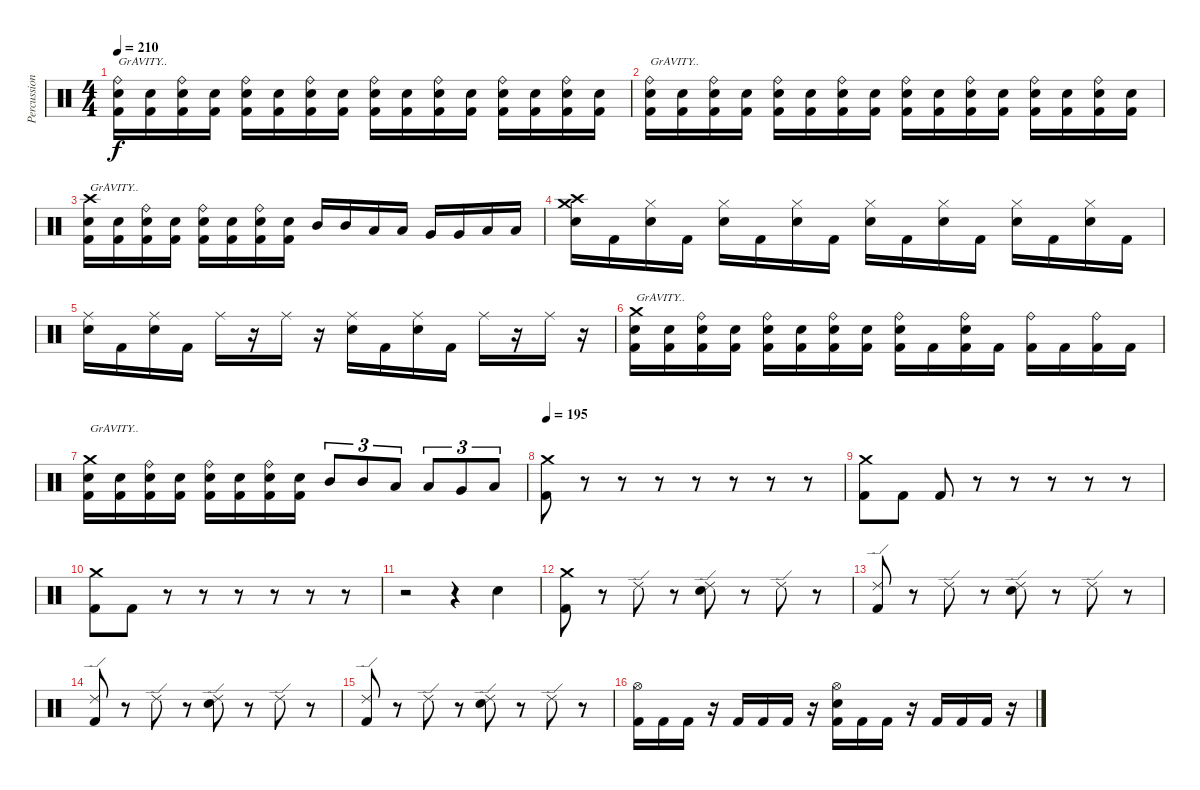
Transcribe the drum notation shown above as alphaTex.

\track ("Percussion" "Percussion") {instrument percussion}
\staff {score}
\articulation defaults
\ts (4 4)
\tempo 210
\clef neutral
\ks c
("Ride (bell)" "Snare (hit) 2" "Kick (hit) 2").16{txt "GrAVITY.." dy f} ("Snare (hit) 2" "Kick (hit) 2").16 ("Ride (bell)" "Snare (hit) 2" "Kick (hit) 2").16 ("Snare (hit) 2" "Kick (hit) 2").16 ("Ride (bell)" "Snare (hit) 2" "Kick (hit) 2").16 ("Snare (hit) 2" "Kick (hit) 2").16 ("Ride (bell)" "Snare (hit) 2" "Kick (hit) 2").16 ("Snare (hit) 2" "Kick (hit) 2").16 ("Ride (bell)" "Snare (hit) 2" "Kick (hit) 2").16 ("Snare (hit) 2" "Kick (hit) 2").16 ("Ride (bell)" "Snare (hit) 2" "Kick (hit) 2").16 ("Snare (hit) 2" "Kick (hit) 2").16 ("Ride (bell)" "Snare (hit) 2" "Kick (hit) 2").16 ("Snare (hit) 2" "Kick (hit) 2").16 ("Ride (bell)" "Snare (hit) 2" "Kick (hit) 2").16 ("Snare (hit) 2" "Kick (hit) 2").16 |
("Ride (bell)" "Snare (hit) 2" "Kick (hit) 2").16{txt "GrAVITY.."} ("Snare (hit) 2" "Kick (hit) 2").16 ("Ride (bell)" "Snare (hit) 2" "Kick (hit) 2").16 ("Snare (hit) 2" "Kick (hit) 2").16 ("Ride (bell)" "Snare (hit) 2" "Kick (hit) 2").16 ("Snare (hit) 2" "Kick (hit) 2").16 ("Ride (bell)" "Snare (hit) 2" "Kick (hit) 2").16 ("Snare (hit) 2" "Kick (hit) 2").16 ("Ride (bell)" "Snare (hit) 2" "Kick (hit) 2").16 ("Snare (hit) 2" "Kick (hit) 2").16 ("Ride (bell)" "Snare (hit) 2" "Kick (hit) 2").16 ("Snare (hit) 2" "Kick (hit) 2").16 ("Ride (bell)" "Snare (hit) 2" "Kick (hit) 2").16 ("Snare (hit) 2" "Kick (hit) 2").16 ("Ride (bell)" "Snare (hit) 2" "Kick (hit) 2").16 ("Snare (hit) 2" "Kick (hit) 2").16 |
("Crash high (hit)" "Snare (hit) 2" "Kick (hit) 2").16{txt "GrAVITY.."} ("Snare (hit) 2" "Kick (hit) 2").16 ("Ride (bell)" "Snare (hit) 2" "Kick (hit) 2").16 ("Snare (hit) 2" "Kick (hit) 2").16 ("Ride (bell)" "Snare (hit) 2" "Kick (hit) 2").16 ("Snare (hit) 2" "Kick (hit) 2").16 ("Ride (bell)" "Snare (hit) 2" "Kick (hit) 2").16 ("Snare (hit) 2" "Kick (hit) 2").16 "Mid Tom (hit)".16 "Mid Tom (hit)".16 "Low Tom (hit)".16 "Low Tom (hit)".16 "Very Low Tom (hit)".16 "Very Low Tom (hit)".16 "Low Floor Tom (hit)".16 "Low Floor Tom (hit)".16 |
("Crash high (hit)" "Crash medium (hit)" "Snare (hit) 2").16 "Kick (hit) 2".16 ("Hi-Hat (closed)" "Snare (hit) 2").16 "Kick (hit) 2".16 ("Hi-Hat (closed)" "Snare (hit) 2").16 "Kick (hit) 2".16 ("Hi-Hat (closed)" "Snare (hit) 2").16 "Kick (hit) 2".16 ("Hi-Hat (closed)" "Snare (hit) 2").16 "Kick (hit) 2".16 ("Hi-Hat (closed)" "Snare (hit) 2").16 "Kick (hit) 2".16 ("Hi-Hat (closed)" "Snare (hit) 2").16 "Kick (hit) 2".16 ("Hi-Hat (closed)" "Snare (hit) 2").16 "Kick (hit) 2".16 |
("Ride (middle)" "Snare (hit) 2").16 "Kick (hit) 2".16 ("Ride (middle)" "Snare (hit) 2").16 "Kick (hit) 2".16 "Ride (middle)".16 r.16 "Ride (middle)".16 r.16 ("Ride (middle)" "Snare (hit) 2").16 "Kick (hit) 2".16 ("Ride (middle)" "Snare (hit) 2").16 "Kick (hit) 2".16 "Ride (middle)".16 r.16 "Ride (middle)".16 r.16 |
("Crash medium (hit)" "Snare (hit) 2" "Kick (hit) 2").16{txt "GrAVITY.."} ("Snare (hit) 2" "Kick (hit) 2").16 ("Ride (bell)" "Snare (hit) 2" "Kick (hit) 2").16 ("Snare (hit) 2" "Kick (hit) 2").16 ("Ride (bell)" "Snare (hit) 2" "Kick (hit) 2").16 ("Snare (hit) 2" "Kick (hit) 2").16 ("Ride (bell)" "Snare (hit) 2" "Kick (hit) 2").16 ("Snare (hit) 2" "Kick (hit) 2").16 ("Ride (bell)" "Snare (hit) 2" "Kick (hit) 2").16 "Kick (hit) 2".16 ("Ride (bell)" "Snare (hit) 2" "Kick (hit) 2").16 "Kick (hit) 2".16 ("Ride (bell)" "Kick (hit) 2").16 "Kick (hit) 2".16 ("Ride (bell)" "Kick (hit) 2").16 "Kick (hit) 2".16 |
("Crash medium (hit)" "Snare (hit) 2" "Kick (hit) 2").16{txt "GrAVITY.."} ("Snare (hit) 2" "Kick (hit) 2").16 ("Ride (bell)" "Snare (hit) 2" "Kick (hit) 2").16 ("Snare (hit) 2" "Kick (hit) 2").16 ("Ride (bell)" "Snare (hit) 2" "Kick (hit) 2").16 ("Snare (hit) 2" "Kick (hit) 2").16 ("Ride (bell)" "Snare (hit) 2" "Kick (hit) 2").16 ("Snare (hit) 2" "Kick (hit) 2").16 "Mid Tom (hit)".8{tu (3 2)} "Mid Tom (hit)".8{tu (3 2)} "Low Tom (hit)".8{tu (3 2)} "Low Tom (hit)".8{tu (3 2)} "Very Low Tom (hit)".8{tu (3 2)} "Low Floor Tom (hit)".8{tu (3 2)} |
\tempo 195
("Crash medium (hit)" "Kick (hit) 2").8 r.8 r.8 r.8 r.8 r.8 r.8 r.8 |
("Crash medium (hit)" "Kick (hit) 2").8 "Kick (hit) 2".8 "Kick (hit) 2".8 r.8 r.8 r.8 r.8 r.8 |
("Crash medium (hit)" "Kick (hit) 2").8 "Kick (hit) 2".8 r.8 r.8 r.8 r.8 r.8 r.8 |
r.2 r.4 "Snare (hit) 2".4 |
("Crash medium (hit)" "Kick (hit) 2").8 r.8 "Ride (edge) 2".8 r.8 ("Ride (edge) 2" "Snare (hit) 2").8 r.8 "Ride (edge) 2".8 r.8 |
("Ride (edge) 2" "Kick (hit) 2").8 r.8 "Ride (edge) 2".8 r.8 ("Ride (edge) 2" "Snare (hit) 2").8 r.8 "Ride (edge) 2".8 r.8 |
("Ride (edge) 2" "Kick (hit) 2").8 r.8 "Ride (edge) 2".8 r.8 ("Ride (edge) 2" "Snare (hit) 2").8 r.8 "Ride (edge) 2".8 r.8 |
("Ride (edge) 2" "Kick (hit) 2").8 r.8 "Ride (edge) 2".8 r.8 ("Ride (edge) 2" "Snare (hit) 2").8 r.8 "Ride (edge) 2".8 r.8 |
("Hi-Hat (open)" "Kick (hit) 2").16 "Kick (hit) 2".16 "Kick (hit) 2".16 r.16 "Kick (hit) 2".16 "Kick (hit) 2".16 "Kick (hit) 2".16 r.16 ("Hi-Hat (open)" "Snare (hit) 2" "Kick (hit) 2").16 "Kick (hit) 2".16 "Kick (hit) 2".16 r.16 "Kick (hit) 2".16 "Kick (hit) 2".16 "Kick (hit) 2".16 r.16
